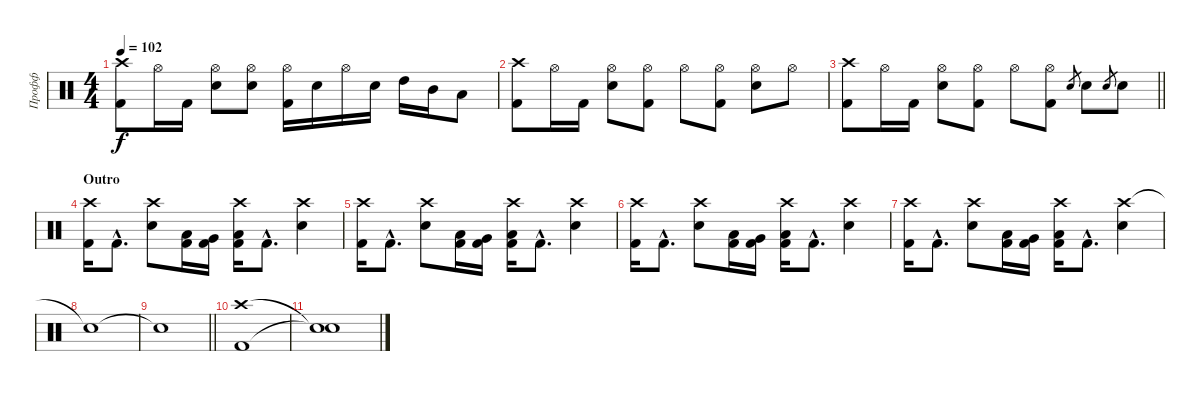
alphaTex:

\track ("Профф" "Профф") {instrument percussion}
\staff {score}
\articulation defaults
\ts (4 4)
\tempo 102
\clef neutral
\ks c
("Crash high (hit)" "Kick (hit) 2").8{dy f} "Hi-Hat (open)".16 "Kick (hit) 2".16 ("Hi-Hat (open)" "Snare (hit) 2").8 ("Hi-Hat (open)" "Snare (hit) 2").8 ("Hi-Hat (open)" "Kick (hit) 2").16 "Snare (hit) 2".16 "Hi-Hat (open)".16 "Snare (hit) 2".16 "High Tom (hit)".16 "Mid Tom (hit)".16 "Low Tom (hit)".8 |
("Crash high (hit)" "Kick (hit) 2").8 "Hi-Hat (open)".16 "Kick (hit) 2".16 ("Hi-Hat (open)" "Snare (hit) 2").8 ("Hi-Hat (open)" "Kick (hit) 2").8 "Hi-Hat (open)".8 ("Hi-Hat (open)" "Kick (hit) 2").8 ("Hi-Hat (open)" "Snare (hit) 2").8 "Hi-Hat (open)".8 |
\barLineRight lightlight
("Crash high (hit)" "Kick (hit) 2").8 "Hi-Hat (open)".16 "Kick (hit) 2".16 ("Hi-Hat (open)" "Snare (hit) 2").8 ("Hi-Hat (open)" "Kick (hit) 2").8 "Hi-Hat (open)".8 ("Hi-Hat (open)" "Kick (hit) 2").8 "Snare (hit) 2".8{gr} "Snare (hit) 2".8 "Snare (hit) 2".8{gr} "Snare (hit) 2".8 |
\section ("" "Outro")
("Crash high (hit)" "Kick (hit) 2").16 "Kick (hit) 2"{hac}.8{d} ("Crash high (hit)" "Snare (hit) 2").8 ("Low Tom (hit)" "Kick (hit) 2").16 ("Very Low Tom (hit)" "Kick (hit) 2").16 ("Crash high (hit)" "Low Floor Tom (hit)" "Kick (hit) 2").16 "Kick (hit) 2"{hac}.8{d} ("Crash high (hit)" "Snare (hit) 2").4 |
("Crash high (hit)" "Kick (hit) 2").16 "Kick (hit) 2"{hac}.8{d} ("Crash high (hit)" "Snare (hit) 2").8 ("Low Tom (hit)" "Kick (hit) 2").16 ("Very Low Tom (hit)" "Kick (hit) 2").16 ("Crash high (hit)" "Low Floor Tom (hit)" "Kick (hit) 2").16 "Kick (hit) 2"{hac}.8{d} ("Crash high (hit)" "Snare (hit) 2").4 |
("Crash high (hit)" "Kick (hit) 2").16 "Kick (hit) 2"{hac}.8{d} ("Crash high (hit)" "Snare (hit) 2").8 ("Low Tom (hit)" "Kick (hit) 2").16 ("Very Low Tom (hit)" "Kick (hit) 2").16 ("Crash high (hit)" "Low Floor Tom (hit)" "Kick (hit) 2").16 "Kick (hit) 2"{hac}.8{d} ("Crash high (hit)" "Snare (hit) 2").4 |
("Crash high (hit)" "Kick (hit) 2").16 "Kick (hit) 2"{hac}.8{d} ("Crash high (hit)" "Snare (hit) 2").8 ("Low Tom (hit)" "Kick (hit) 2").16 ("Very Low Tom (hit)" "Kick (hit) 2").16 ("Crash high (hit)" "Low Floor Tom (hit)" "Kick (hit) 2").16 "Kick (hit) 2"{hac}.8{d} ("Crash high (hit)" "Snare (hit) 2").4 |
"Snare (hit)"{t}.1 |
\barLineRight lightlight "Snare (hit)"{t}.1
|
("Crash high (hit)" "Kick (hit) 2").1 |
("Snare (hit)"{t} "Snare (hit)"{t}).1
